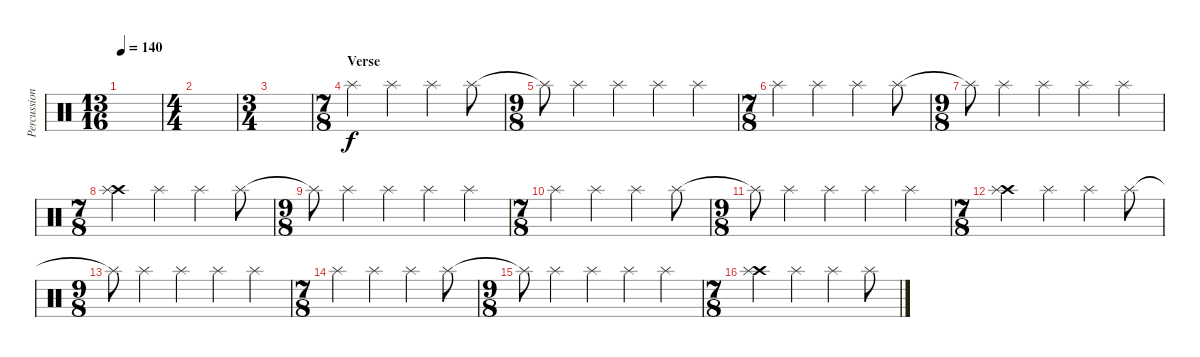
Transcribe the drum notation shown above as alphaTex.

\track ("Percussion" "Percussion") {instrument percussion}
\staff {score}
\articulation defaults
\ts (13 16)
\tempo 140
\clef neutral
\ks c
|
\ts (4 4)
|
\ts (3 4)
|
\ts (7 8)
\section ("" "Verse")
"Splash (hit)".4 "Splash (hit)".4 "Splash (hit)".4 "Splash (hit)".8 |
\ts (9 8)
"Splash (hit)"{t}.8 "Splash (hit)".4 "Splash (hit)".4 "Splash (hit)".4 "Splash (hit)".4 |
\ts (7 8)
"Splash (hit)".4 "Splash (hit)".4 "Splash (hit)".4 "Splash (hit)".8 |
\ts (9 8)
"Splash (hit)"{t}.8 "Splash (hit)".4 "Splash (hit)".4 "Splash (hit)".4 "Splash (hit)".4 |
\ts (7 8)
("Crash high (hit)" "Splash (hit)").4 "Splash (hit)".4 "Splash (hit)".4 "Splash (hit)".8 |
\ts (9 8)
"Splash (hit)"{t}.8 "Splash (hit)".4 "Splash (hit)".4 "Splash (hit)".4 "Splash (hit)".4 |
\ts (7 8)
"Splash (hit)".4 "Splash (hit)".4 "Splash (hit)".4 "Splash (hit)".8 |
\ts (9 8)
"Splash (hit)"{t}.8 "Splash (hit)".4 "Splash (hit)".4 "Splash (hit)".4 "Splash (hit)".4 |
\ts (7 8)
("Crash high (hit)" "Splash (hit)").4 "Splash (hit)".4 "Splash (hit)".4 "Splash (hit)".8 |
\ts (9 8)
"Splash (hit)"{t}.8 "Splash (hit)".4 "Splash (hit)".4 "Splash (hit)".4 "Splash (hit)".4 |
\ts (7 8)
"Splash (hit)".4 "Splash (hit)".4 "Splash (hit)".4 "Splash (hit)".8 |
\ts (9 8)
"Splash (hit)"{t}.8 "Splash (hit)".4 "Splash (hit)".4 "Splash (hit)".4 "Splash (hit)".4 |
\ts (7 8)
("Crash high (hit)" "Splash (hit)").4 "Splash (hit)".4 "Splash (hit)".4 "Splash (hit)".8
